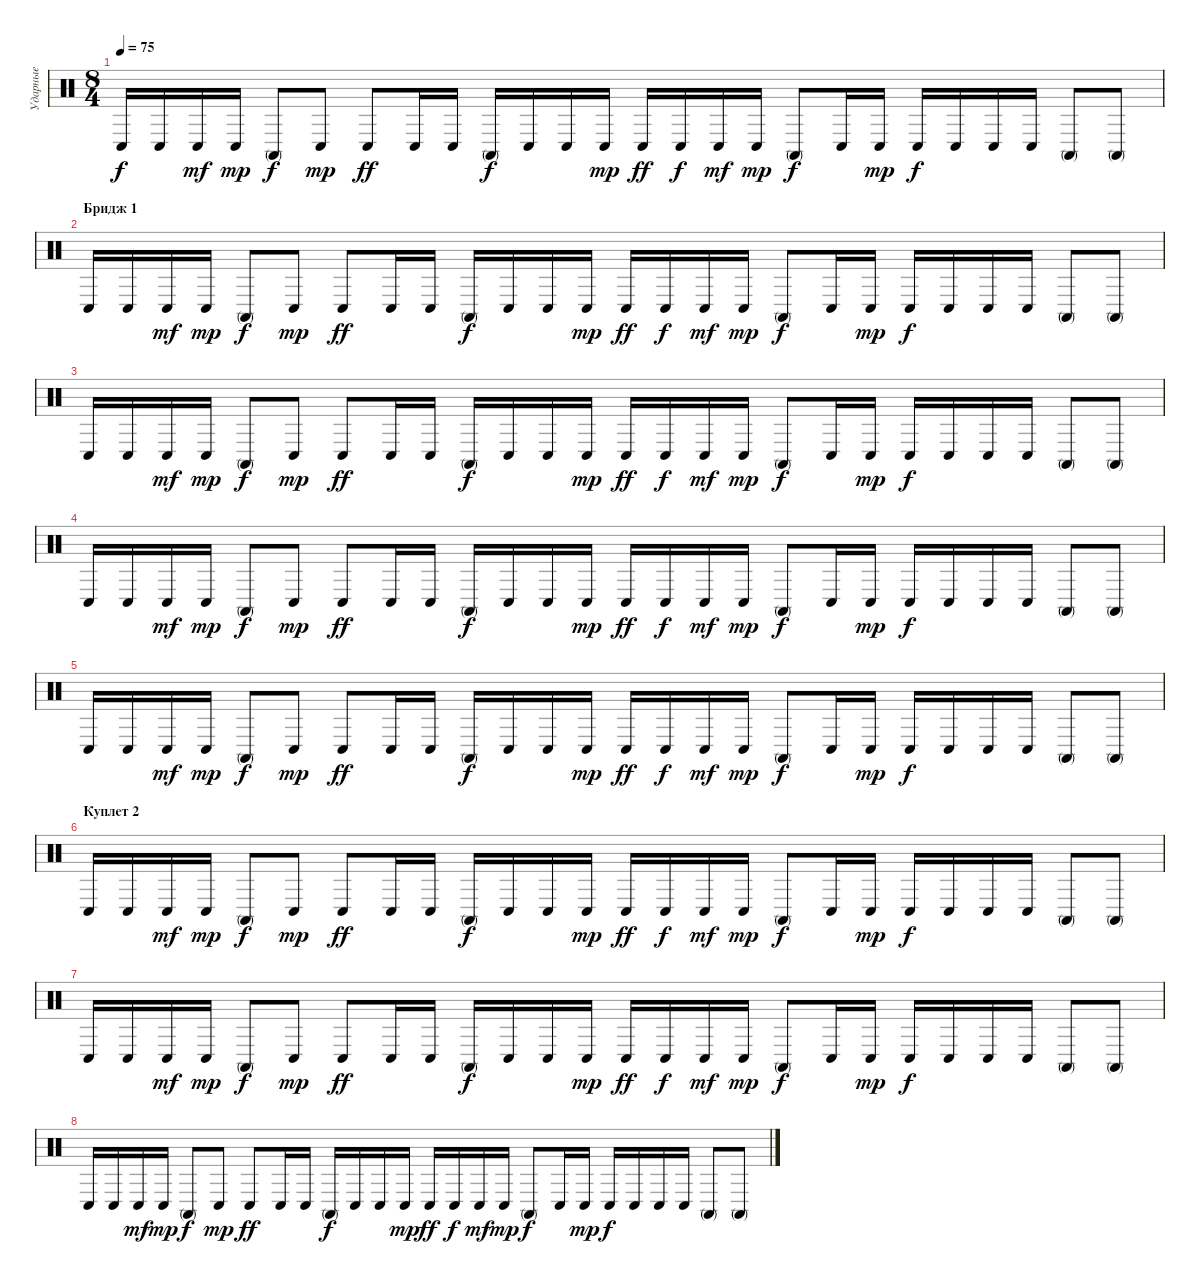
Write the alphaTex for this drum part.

\track ("Ударные" "Ударные") {instrument percussion}
\staff {score}
\articulation defaults
\ts (8 4)
\tempo 75
\clef neutral
\ks c "Conga low (hit)".16{dy f} "Conga low (hit)".16 "Conga low (hit)".16{dy mf} "Conga low (hit)".16{dy mp} "Conga high (mute)".8{dy f} "Conga low (hit)".8{dy mp} "Conga low (hit)".8{dy ff} "Conga low (hit)".16 "Conga low (hit)".16 "Conga high (mute)".16{dy f} "Conga low (hit)".16 "Conga low (hit)".16 "Conga low (hit)".16{dy mp} "Conga low (hit)".16{dy ff} "Conga low (hit)".16{dy f} "Conga low (hit)".16{dy mf} "Conga low (hit)".16{dy mp} "Conga high (mute)".8{dy f} "Conga low (hit)".16 "Conga low (hit)".16{dy mp} "Conga low (hit)".16{dy f} "Conga low (hit)".16 "Conga low (hit)".16 "Conga low (hit)".16 "Conga high (mute)".8 "Conga high (mute)".8
|
\section ("" "Бридж 1")
"Conga low (hit)".16 "Conga low (hit)".16 "Conga low (hit)".16{dy mf} "Conga low (hit)".16{dy mp} "Conga high (mute)".8{dy f} "Conga low (hit)".8{dy mp} "Conga low (hit)".8{dy ff} "Conga low (hit)".16 "Conga low (hit)".16 "Conga high (mute)".16{dy f} "Conga low (hit)".16 "Conga low (hit)".16 "Conga low (hit)".16{dy mp} "Conga low (hit)".16{dy ff} "Conga low (hit)".16{dy f} "Conga low (hit)".16{dy mf} "Conga low (hit)".16{dy mp} "Conga high (mute)".8{dy f} "Conga low (hit)".16 "Conga low (hit)".16{dy mp} "Conga low (hit)".16{dy f} "Conga low (hit)".16 "Conga low (hit)".16 "Conga low (hit)".16 "Conga high (mute)".8 "Conga high (mute)".8 |
"Conga low (hit)".16 "Conga low (hit)".16 "Conga low (hit)".16{dy mf} "Conga low (hit)".16{dy mp} "Conga high (mute)".8{dy f} "Conga low (hit)".8{dy mp} "Conga low (hit)".8{dy ff} "Conga low (hit)".16 "Conga low (hit)".16 "Conga high (mute)".16{dy f} "Conga low (hit)".16 "Conga low (hit)".16 "Conga low (hit)".16{dy mp} "Conga low (hit)".16{dy ff} "Conga low (hit)".16{dy f} "Conga low (hit)".16{dy mf} "Conga low (hit)".16{dy mp} "Conga high (mute)".8{dy f} "Conga low (hit)".16 "Conga low (hit)".16{dy mp} "Conga low (hit)".16{dy f} "Conga low (hit)".16 "Conga low (hit)".16 "Conga low (hit)".16 "Conga high (mute)".8 "Conga high (mute)".8 |
"Conga low (hit)".16 "Conga low (hit)".16 "Conga low (hit)".16{dy mf} "Conga low (hit)".16{dy mp} "Conga high (mute)".8{dy f} "Conga low (hit)".8{dy mp} "Conga low (hit)".8{dy ff} "Conga low (hit)".16 "Conga low (hit)".16 "Conga high (mute)".16{dy f} "Conga low (hit)".16 "Conga low (hit)".16 "Conga low (hit)".16{dy mp} "Conga low (hit)".16{dy ff} "Conga low (hit)".16{dy f} "Conga low (hit)".16{dy mf} "Conga low (hit)".16{dy mp} "Conga high (mute)".8{dy f} "Conga low (hit)".16 "Conga low (hit)".16{dy mp} "Conga low (hit)".16{dy f} "Conga low (hit)".16 "Conga low (hit)".16 "Conga low (hit)".16 "Conga high (mute)".8 "Conga high (mute)".8 |
"Conga low (hit)".16 "Conga low (hit)".16 "Conga low (hit)".16{dy mf} "Conga low (hit)".16{dy mp} "Conga high (mute)".8{dy f} "Conga low (hit)".8{dy mp} "Conga low (hit)".8{dy ff} "Conga low (hit)".16 "Conga low (hit)".16 "Conga high (mute)".16{dy f} "Conga low (hit)".16 "Conga low (hit)".16 "Conga low (hit)".16{dy mp} "Conga low (hit)".16{dy ff} "Conga low (hit)".16{dy f} "Conga low (hit)".16{dy mf} "Conga low (hit)".16{dy mp} "Conga high (mute)".8{dy f} "Conga low (hit)".16 "Conga low (hit)".16{dy mp} "Conga low (hit)".16{dy f} "Conga low (hit)".16 "Conga low (hit)".16 "Conga low (hit)".16 "Conga high (mute)".8 "Conga high (mute)".8 |
\section ("" "Куплет 2")
"Conga low (hit)".16 "Conga low (hit)".16 "Conga low (hit)".16{dy mf} "Conga low (hit)".16{dy mp} "Conga high (mute)".8{dy f} "Conga low (hit)".8{dy mp} "Conga low (hit)".8{dy ff} "Conga low (hit)".16 "Conga low (hit)".16 "Conga high (mute)".16{dy f} "Conga low (hit)".16 "Conga low (hit)".16 "Conga low (hit)".16{dy mp} "Conga low (hit)".16{dy ff} "Conga low (hit)".16{dy f} "Conga low (hit)".16{dy mf} "Conga low (hit)".16{dy mp} "Conga high (mute)".8{dy f} "Conga low (hit)".16 "Conga low (hit)".16{dy mp} "Conga low (hit)".16{dy f} "Conga low (hit)".16 "Conga low (hit)".16 "Conga low (hit)".16 "Conga high (mute)".8 "Conga high (mute)".8 |
"Conga low (hit)".16 "Conga low (hit)".16 "Conga low (hit)".16{dy mf} "Conga low (hit)".16{dy mp} "Conga high (mute)".8{dy f} "Conga low (hit)".8{dy mp} "Conga low (hit)".8{dy ff} "Conga low (hit)".16 "Conga low (hit)".16 "Conga high (mute)".16{dy f} "Conga low (hit)".16 "Conga low (hit)".16 "Conga low (hit)".16{dy mp} "Conga low (hit)".16{dy ff} "Conga low (hit)".16{dy f} "Conga low (hit)".16{dy mf} "Conga low (hit)".16{dy mp} "Conga high (mute)".8{dy f} "Conga low (hit)".16 "Conga low (hit)".16{dy mp} "Conga low (hit)".16{dy f} "Conga low (hit)".16 "Conga low (hit)".16 "Conga low (hit)".16 "Conga high (mute)".8 "Conga high (mute)".8 |
"Conga low (hit)".16 "Conga low (hit)".16 "Conga low (hit)".16{dy mf} "Conga low (hit)".16{dy mp} "Conga high (mute)".8{dy f} "Conga low (hit)".8{dy mp} "Conga low (hit)".8{dy ff} "Conga low (hit)".16 "Conga low (hit)".16 "Conga high (mute)".16{dy f} "Conga low (hit)".16 "Conga low (hit)".16 "Conga low (hit)".16{dy mp} "Conga low (hit)".16{dy ff} "Conga low (hit)".16{dy f} "Conga low (hit)".16{dy mf} "Conga low (hit)".16{dy mp} "Conga high (mute)".8{dy f} "Conga low (hit)".16 "Conga low (hit)".16{dy mp} "Conga low (hit)".16{dy f} "Conga low (hit)".16 "Conga low (hit)".16 "Conga low (hit)".16 "Conga high (mute)".8 "Conga high (mute)".8
